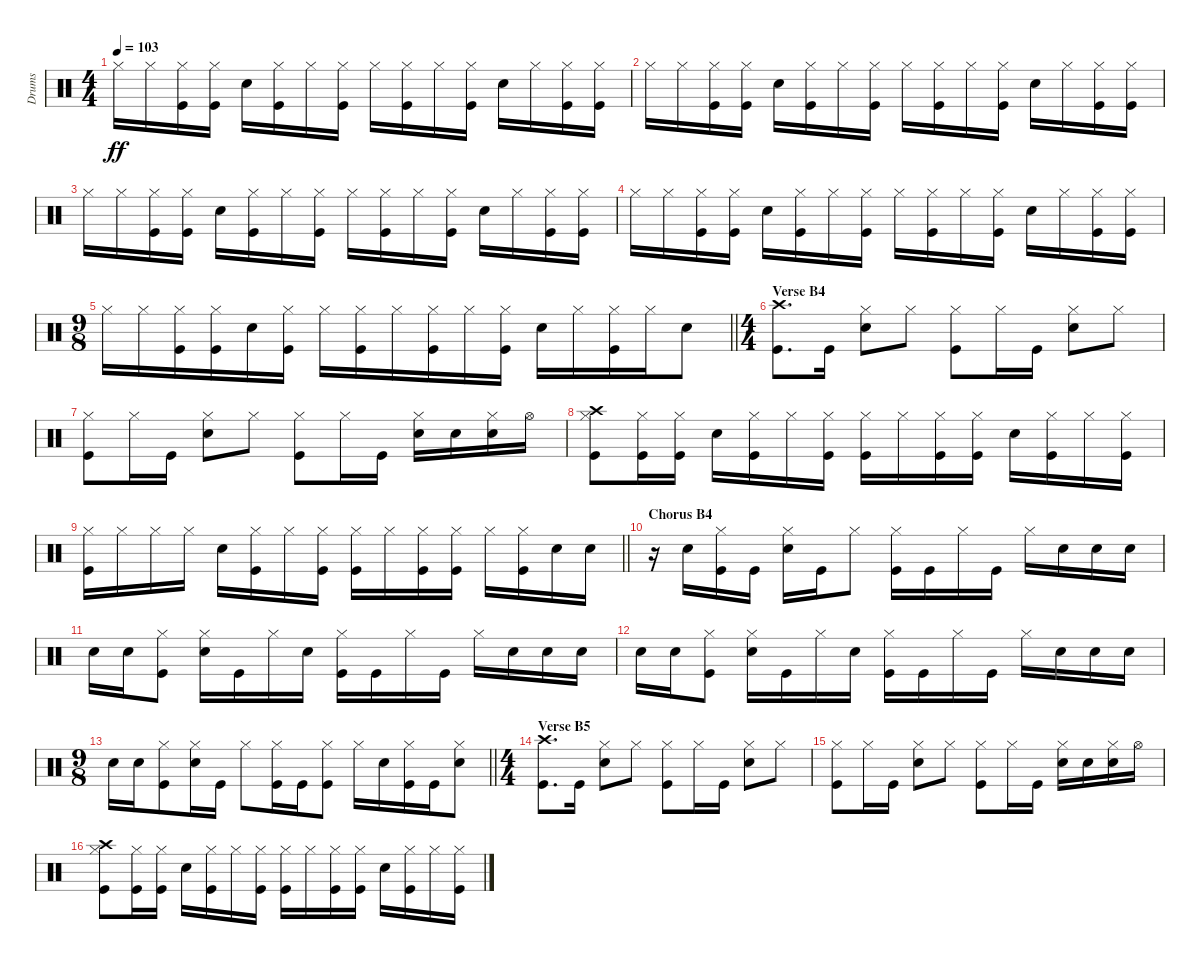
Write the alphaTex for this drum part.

\track ("Drums" "Drums") {instrument percussion}
\staff {score}
\articulation defaults
\ts (4 4)
\tempo 103
\clef neutral
\ks c "Hi-Hat (closed)".16{dy ff} "Hi-Hat (closed)".16
("Hi-Hat (closed)" "Kick (hit)").16 ("Hi-Hat (closed)" "Kick (hit)").16 "Electric Snare (hit)".16 ("Hi-Hat (closed)" "Kick (hit)").16 "Hi-Hat (closed)".16 ("Hi-Hat (closed)" "Kick (hit)").16 "Hi-Hat (closed)".16 ("Hi-Hat (closed)" "Kick (hit)").16 "Hi-Hat (closed)".16 ("Hi-Hat (closed)" "Kick (hit)").16 "Electric Snare (hit)".16 "Hi-Hat (closed)".16 ("Hi-Hat (closed)" "Kick (hit)").16 ("Hi-Hat (closed)" "Kick (hit)").16 |
"Hi-Hat (closed)".16 "Hi-Hat (closed)".16 ("Hi-Hat (closed)" "Kick (hit)").16 ("Hi-Hat (closed)" "Kick (hit)").16 "Electric Snare (hit)".16 ("Hi-Hat (closed)" "Kick (hit)").16 "Hi-Hat (closed)".16 ("Hi-Hat (closed)" "Kick (hit)").16 "Hi-Hat (closed)".16 ("Hi-Hat (closed)" "Kick (hit)").16 "Hi-Hat (closed)".16 ("Hi-Hat (closed)" "Kick (hit)").16 "Electric Snare (hit)".16 "Hi-Hat (closed)".16 ("Hi-Hat (closed)" "Kick (hit)").16 ("Hi-Hat (closed)" "Kick (hit)").16 |
"Hi-Hat (closed)".16 "Hi-Hat (closed)".16 ("Hi-Hat (closed)" "Kick (hit)").16 ("Hi-Hat (closed)" "Kick (hit)").16 "Electric Snare (hit)".16 ("Hi-Hat (closed)" "Kick (hit)").16 "Hi-Hat (closed)".16 ("Hi-Hat (closed)" "Kick (hit)").16 "Hi-Hat (closed)".16 ("Hi-Hat (closed)" "Kick (hit)").16 "Hi-Hat (closed)".16 ("Hi-Hat (closed)" "Kick (hit)").16 "Electric Snare (hit)".16 "Hi-Hat (closed)".16 ("Hi-Hat (closed)" "Kick (hit)").16 ("Hi-Hat (closed)" "Kick (hit)").16 |
"Hi-Hat (closed)".16 "Hi-Hat (closed)".16 ("Hi-Hat (closed)" "Kick (hit)").16 ("Hi-Hat (closed)" "Kick (hit)").16 "Electric Snare (hit)".16 ("Hi-Hat (closed)" "Kick (hit)").16 "Hi-Hat (closed)".16 ("Hi-Hat (closed)" "Kick (hit)").16 "Hi-Hat (closed)".16 ("Hi-Hat (closed)" "Kick (hit)").16 "Hi-Hat (closed)".16 ("Hi-Hat (closed)" "Kick (hit)").16 "Electric Snare (hit)".16 "Hi-Hat (closed)".16 ("Hi-Hat (closed)" "Kick (hit)").16 ("Hi-Hat (closed)" "Kick (hit)").16 |
\ts (9 8)
\barLineRight lightlight "Hi-Hat (closed)".16 "Hi-Hat (closed)".16
("Hi-Hat (closed)" "Kick (hit)").16 ("Hi-Hat (closed)" "Kick (hit)").16 "Electric Snare (hit)".16 ("Hi-Hat (closed)" "Kick (hit)").16 "Hi-Hat (closed)".16 ("Hi-Hat (closed)" "Kick (hit)").16 "Hi-Hat (closed)".16 ("Hi-Hat (closed)" "Kick (hit)").16 "Hi-Hat (closed)".16 ("Hi-Hat (closed)" "Kick (hit)").16 "Electric Snare (hit)".16 "Hi-Hat (closed)".16 ("Hi-Hat (closed)" "Kick (hit)").16 "Hi-Hat (closed)".16 "Electric Snare (hit)".8 |
\ts (4 4)
\section ("" "Verse B4")
("Crash high (hit)" "Kick (hit)").8{d} "Kick (hit)".16 ("Hi-Hat (closed)" "Electric Snare (hit)").8 "Hi-Hat (closed)".8 ("Hi-Hat (closed)" "Kick (hit)").8 "Hi-Hat (closed)".16 "Kick (hit)".16 ("Hi-Hat (closed)" "Electric Snare (hit)").8 "Hi-Hat (closed)".8 |
("Hi-Hat (closed)" "Kick (hit)").8 "Hi-Hat (closed)".16 "Kick (hit)".16 ("Hi-Hat (closed)" "Electric Snare (hit)").8 "Hi-Hat (closed)".8 ("Hi-Hat (closed)" "Kick (hit)").8 "Hi-Hat (closed)".16 "Kick (hit)".16 ("Hi-Hat (closed)" "Electric Snare (hit)").16 "Electric Snare (hit)".16 ("Hi-Hat (closed)" "Electric Snare (hit)").16 "Hi-Hat (open)".16 |
("Hi-Hat (closed)" "Crash high (hit)" "Kick (hit)").8 ("Hi-Hat (closed)" "Kick (hit)").16 ("Hi-Hat (closed)" "Kick (hit)").16 "Electric Snare (hit)".16 ("Hi-Hat (closed)" "Kick (hit)").16 "Hi-Hat (closed)".16 ("Hi-Hat (closed)" "Kick (hit)").16 ("Hi-Hat (closed)" "Kick (hit)").16 "Hi-Hat (closed)".16 ("Hi-Hat (closed)" "Kick (hit)").16 ("Hi-Hat (closed)" "Kick (hit)").16 "Electric Snare (hit)".16 ("Hi-Hat (closed)" "Kick (hit)").16 "Hi-Hat (closed)".16 ("Hi-Hat (closed)" "Kick (hit)").16 |
\barLineRight lightlight
("Hi-Hat (closed)" "Kick (hit)").16 "Hi-Hat (closed)".16 "Hi-Hat (closed)".16 "Hi-Hat (closed)".16 "Electric Snare (hit)".16 ("Hi-Hat (closed)" "Kick (hit)").16 "Hi-Hat (closed)".16 ("Hi-Hat (closed)" "Kick (hit)").16 ("Hi-Hat (closed)" "Kick (hit)").16 "Hi-Hat (closed)".16 ("Hi-Hat (closed)" "Kick (hit)").16 ("Hi-Hat (closed)" "Kick (hit)").16 "Hi-Hat (closed)".16 ("Hi-Hat (closed)" "Kick (hit)").16 "Electric Snare (hit)".16 "Electric Snare (hit)".16 |
\section ("" "Chorus B4")
r.16 "Electric Snare (hit)".16 ("Hi-Hat (closed)" "Kick (hit)").16 "Kick (hit)".16 ("Hi-Hat (closed)" "Electric Snare (hit)").16 "Kick (hit)".16 "Hi-Hat (closed)".8 ("Hi-Hat (closed)" "Kick (hit)").16 "Kick (hit)".16 "Hi-Hat (closed)".16 "Kick (hit)".16 "Hi-Hat (closed)".16 "Electric Snare (hit)".16 "Electric Snare (hit)".16 "Electric Snare (hit)".16 |
"Electric Snare (hit)".16 "Electric Snare (hit)".16 ("Hi-Hat (closed)" "Kick (hit)").8 ("Hi-Hat (closed)" "Electric Snare (hit)").16 "Kick (hit)".16 "Hi-Hat (closed)".16 "Electric Snare (hit)".16 ("Hi-Hat (closed)" "Kick (hit)").16 "Kick (hit)".16 "Hi-Hat (closed)".16 "Kick (hit)".16 "Hi-Hat (closed)".16 "Electric Snare (hit)".16 "Electric Snare (hit)".16 "Electric Snare (hit)".16 |
"Electric Snare (hit)".16 "Electric Snare (hit)".16 ("Hi-Hat (closed)" "Kick (hit)").8 ("Hi-Hat (closed)" "Electric Snare (hit)").16 "Kick (hit)".16 "Hi-Hat (closed)".16 "Electric Snare (hit)".16 ("Hi-Hat (closed)" "Kick (hit)").16 "Kick (hit)".16 "Hi-Hat (closed)".16 "Kick (hit)".16 "Hi-Hat (closed)".16 "Electric Snare (hit)".16 "Electric Snare (hit)".16 "Electric Snare (hit)".16 |
\ts (9 8)
\barLineRight lightlight "Electric Snare (hit)".16 "Electric Snare (hit)".16
("Hi-Hat (closed)" "Kick (hit)").8 ("Hi-Hat (closed)" "Electric Snare (hit)").16 "Kick (hit)".16 "Hi-Hat (closed)".8 ("Hi-Hat (closed)" "Kick (hit)").16 "Kick (hit)".16 ("Hi-Hat (closed)" "Kick (hit)").8 "Hi-Hat (closed)".16 "Electric Snare (hit)".16 ("Hi-Hat (closed)" "Kick (hit)").16 "Kick (hit)".16 ("Hi-Hat (closed)" "Electric Snare (hit)").8 |
\ts (4 4)
\section ("" "Verse B5")
("Crash high (hit)" "Kick (hit)").8{d} "Kick (hit)".16 ("Hi-Hat (closed)" "Electric Snare (hit)").8 "Hi-Hat (closed)".8 ("Hi-Hat (closed)" "Kick (hit)").8 "Hi-Hat (closed)".16 "Kick (hit)".16 ("Hi-Hat (closed)" "Electric Snare (hit)").8 "Hi-Hat (closed)".8 |
("Hi-Hat (closed)" "Kick (hit)").8 "Hi-Hat (closed)".16 "Kick (hit)".16 ("Hi-Hat (closed)" "Electric Snare (hit)").8 "Hi-Hat (closed)".8 ("Hi-Hat (closed)" "Kick (hit)").8 "Hi-Hat (closed)".16 "Kick (hit)".16 ("Hi-Hat (closed)" "Electric Snare (hit)").16 "Electric Snare (hit)".16 ("Hi-Hat (closed)" "Electric Snare (hit)").16 "Hi-Hat (open)".16 |
("Hi-Hat (closed)" "Crash high (hit)" "Kick (hit)").8 ("Hi-Hat (closed)" "Kick (hit)").16 ("Hi-Hat (closed)" "Kick (hit)").16 "Electric Snare (hit)".16 ("Hi-Hat (closed)" "Kick (hit)").16 "Hi-Hat (closed)".16 ("Hi-Hat (closed)" "Kick (hit)").16 ("Hi-Hat (closed)" "Kick (hit)").16 "Hi-Hat (closed)".16 ("Hi-Hat (closed)" "Kick (hit)").16 ("Hi-Hat (closed)" "Kick (hit)").16 "Electric Snare (hit)".16 ("Hi-Hat (closed)" "Kick (hit)").16 "Hi-Hat (closed)".16 ("Hi-Hat (closed)" "Kick (hit)").16
